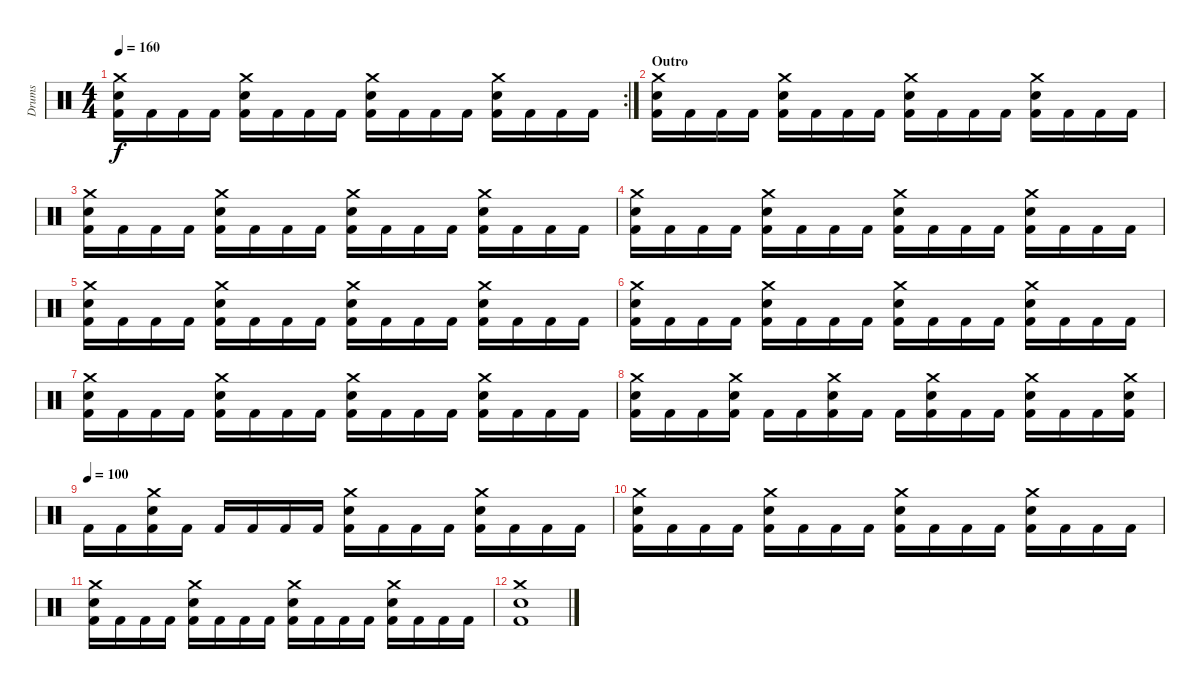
\track ("Drums" "Drums") {instrument percussion}
\staff {score}
\articulation defaults
\rc 2
\ts (4 4)
\tempo 160
\clef neutral
\ks c
("Crash medium (hit)" "Electric Snare (hit)" "Kick (hit) 2").16{dy f} "Kick (hit) 2".16 "Kick (hit) 2".16 "Kick (hit) 2".16 ("Crash medium (hit)" "Electric Snare (hit)" "Kick (hit) 2").16 "Kick (hit) 2".16 "Kick (hit) 2".16 "Kick (hit) 2".16 ("Crash medium (hit)" "Electric Snare (hit)" "Kick (hit) 2").16 "Kick (hit) 2".16 "Kick (hit) 2".16 "Kick (hit) 2".16 ("Crash medium (hit)" "Electric Snare (hit)" "Kick (hit) 2").16 "Kick (hit) 2".16 "Kick (hit) 2".16 "Kick (hit) 2".16 |
\section ("" "Outro")
("Crash medium (hit)" "Electric Snare (hit)" "Kick (hit) 2").16 "Kick (hit) 2".16 "Kick (hit) 2".16 "Kick (hit) 2".16 ("Crash medium (hit)" "Electric Snare (hit)" "Kick (hit) 2").16 "Kick (hit) 2".16 "Kick (hit) 2".16 "Kick (hit) 2".16 ("Crash medium (hit)" "Electric Snare (hit)" "Kick (hit) 2").16 "Kick (hit) 2".16 "Kick (hit) 2".16 "Kick (hit) 2".16 ("Crash medium (hit)" "Electric Snare (hit)" "Kick (hit) 2").16 "Kick (hit) 2".16 "Kick (hit) 2".16 "Kick (hit) 2".16 |
("Crash medium (hit)" "Electric Snare (hit)" "Kick (hit) 2").16 "Kick (hit) 2".16 "Kick (hit) 2".16 "Kick (hit) 2".16 ("Crash medium (hit)" "Electric Snare (hit)" "Kick (hit) 2").16 "Kick (hit) 2".16 "Kick (hit) 2".16 "Kick (hit) 2".16 ("Crash medium (hit)" "Electric Snare (hit)" "Kick (hit) 2").16 "Kick (hit) 2".16 "Kick (hit) 2".16 "Kick (hit) 2".16 ("Crash medium (hit)" "Electric Snare (hit)" "Kick (hit) 2").16 "Kick (hit) 2".16 "Kick (hit) 2".16 "Kick (hit) 2".16 |
("Crash medium (hit)" "Electric Snare (hit)" "Kick (hit) 2").16 "Kick (hit) 2".16 "Kick (hit) 2".16 "Kick (hit) 2".16 ("Crash medium (hit)" "Electric Snare (hit)" "Kick (hit) 2").16 "Kick (hit) 2".16 "Kick (hit) 2".16 "Kick (hit) 2".16 ("Crash medium (hit)" "Electric Snare (hit)" "Kick (hit) 2").16 "Kick (hit) 2".16 "Kick (hit) 2".16 "Kick (hit) 2".16 ("Crash medium (hit)" "Electric Snare (hit)" "Kick (hit) 2").16 "Kick (hit) 2".16 "Kick (hit) 2".16 "Kick (hit) 2".16 |
("Crash medium (hit)" "Electric Snare (hit)" "Kick (hit) 2").16 "Kick (hit) 2".16 "Kick (hit) 2".16 "Kick (hit) 2".16 ("Crash medium (hit)" "Electric Snare (hit)" "Kick (hit) 2").16 "Kick (hit) 2".16 "Kick (hit) 2".16 "Kick (hit) 2".16 ("Crash medium (hit)" "Electric Snare (hit)" "Kick (hit) 2").16 "Kick (hit) 2".16 "Kick (hit) 2".16 "Kick (hit) 2".16 ("Crash medium (hit)" "Electric Snare (hit)" "Kick (hit) 2").16 "Kick (hit) 2".16 "Kick (hit) 2".16 "Kick (hit) 2".16 |
("Crash medium (hit)" "Electric Snare (hit)" "Kick (hit) 2").16 "Kick (hit) 2".16 "Kick (hit) 2".16 "Kick (hit) 2".16 ("Crash medium (hit)" "Electric Snare (hit)" "Kick (hit) 2").16 "Kick (hit) 2".16 "Kick (hit) 2".16 "Kick (hit) 2".16 ("Crash medium (hit)" "Electric Snare (hit)" "Kick (hit) 2").16 "Kick (hit) 2".16 "Kick (hit) 2".16 "Kick (hit) 2".16 ("Crash medium (hit)" "Electric Snare (hit)" "Kick (hit) 2").16 "Kick (hit) 2".16 "Kick (hit) 2".16 "Kick (hit) 2".16 |
("Crash medium (hit)" "Electric Snare (hit)" "Kick (hit) 2").16 "Kick (hit) 2".16 "Kick (hit) 2".16 "Kick (hit) 2".16 ("Crash medium (hit)" "Electric Snare (hit)" "Kick (hit) 2").16 "Kick (hit) 2".16 "Kick (hit) 2".16 "Kick (hit) 2".16 ("Crash medium (hit)" "Electric Snare (hit)" "Kick (hit) 2").16 "Kick (hit) 2".16 "Kick (hit) 2".16 "Kick (hit) 2".16 ("Crash medium (hit)" "Electric Snare (hit)" "Kick (hit) 2").16 "Kick (hit) 2".16 "Kick (hit) 2".16 "Kick (hit) 2".16 |
("Crash medium (hit)" "Electric Snare (hit)" "Kick (hit) 2").16 "Kick (hit) 2".16 "Kick (hit) 2".16 ("Crash medium (hit)" "Electric Snare (hit)" "Kick (hit) 2").16 "Kick (hit) 2".16 "Kick (hit) 2".16 ("Crash medium (hit)" "Electric Snare (hit)" "Kick (hit) 2").16 "Kick (hit) 2".16 "Kick (hit) 2".16 ("Crash medium (hit)" "Electric Snare (hit)" "Kick (hit) 2").16 "Kick (hit) 2".16 "Kick (hit) 2".16 ("Crash medium (hit)" "Electric Snare (hit)" "Kick (hit) 2").16 "Kick (hit) 2".16 "Kick (hit) 2".16 ("Crash medium (hit)" "Electric Snare (hit)" "Kick (hit) 2").16 |
\tempo (100)
"Kick (hit) 2".16 "Kick (hit) 2".16 ("Crash medium (hit)" "Electric Snare (hit)" "Kick (hit) 2").16 "Kick (hit) 2".16 "Kick (hit) 2".16 "Kick (hit) 2".16 "Kick (hit) 2".16 "Kick (hit) 2".16 ("Crash medium (hit)" "Electric Snare (hit)" "Kick (hit) 2").16 "Kick (hit) 2".16 "Kick (hit) 2".16 "Kick (hit) 2".16 ("Crash medium (hit)" "Electric Snare (hit)" "Kick (hit) 2").16 "Kick (hit) 2".16 "Kick (hit) 2".16 "Kick (hit) 2".16 |
("Crash medium (hit)" "Electric Snare (hit)" "Kick (hit) 2").16 "Kick (hit) 2".16 "Kick (hit) 2".16 "Kick (hit) 2".16 ("Crash medium (hit)" "Electric Snare (hit)" "Kick (hit) 2").16 "Kick (hit) 2".16 "Kick (hit) 2".16 "Kick (hit) 2".16 ("Crash medium (hit)" "Electric Snare (hit)" "Kick (hit) 2").16 "Kick (hit) 2".16 "Kick (hit) 2".16 "Kick (hit) 2".16 ("Crash medium (hit)" "Electric Snare (hit)" "Kick (hit) 2").16 "Kick (hit) 2".16 "Kick (hit) 2".16 "Kick (hit) 2".16 |
("Crash medium (hit)" "Electric Snare (hit)" "Kick (hit) 2").16 "Kick (hit) 2".16 "Kick (hit) 2".16 "Kick (hit) 2".16 ("Crash medium (hit)" "Electric Snare (hit)" "Kick (hit) 2").16 "Kick (hit) 2".16 "Kick (hit) 2".16 "Kick (hit) 2".16 ("Crash medium (hit)" "Electric Snare (hit)" "Kick (hit) 2").16 "Kick (hit) 2".16 "Kick (hit) 2".16 "Kick (hit) 2".16 ("Crash medium (hit)" "Electric Snare (hit)" "Kick (hit) 2").16 "Kick (hit) 2".16 "Kick (hit) 2".16 "Kick (hit) 2".16 |
("Crash medium (hit)" "Electric Snare (hit)" "Kick (hit) 2").1
